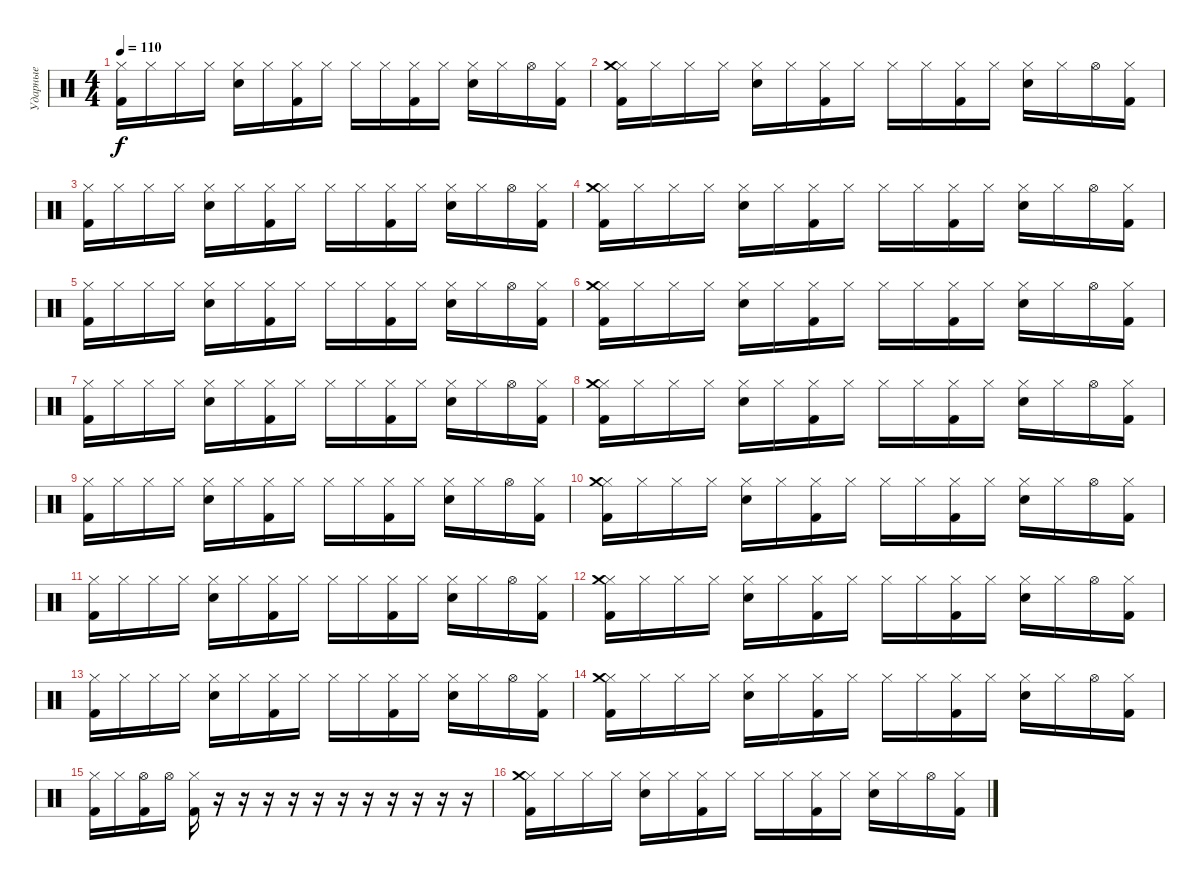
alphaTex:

\track ("Ударные" "Ударные") {instrument percussion}
\staff {score}
\articulation defaults
\ts (4 4)
\tempo 110
\clef neutral
\ks c
("Hi-Hat (closed)" "Kick (hit) 2").16{dy f} "Hi-Hat (closed)".16 "Hi-Hat (closed)".16 "Hi-Hat (closed)".16 ("Hi-Hat (closed)" "Electric Snare (hit)").16 "Hi-Hat (closed)".16 ("Hi-Hat (closed)" "Kick (hit) 2").16 "Hi-Hat (closed)".16 "Hi-Hat (closed)".16 "Hi-Hat (closed)".16 ("Hi-Hat (closed)" "Kick (hit) 2").16 "Hi-Hat (closed)".16 ("Hi-Hat (closed)" "Electric Snare (hit)").16 "Hi-Hat (closed)".16 "Hi-Hat (open)".16 ("Hi-Hat (closed)" "Kick (hit) 2").16 |
("Hi-Hat (closed)" "Kick (hit) 2" "Crash medium (hit)").16 "Hi-Hat (closed)".16 "Hi-Hat (closed)".16 "Hi-Hat (closed)".16 ("Hi-Hat (closed)" "Electric Snare (hit)").16 "Hi-Hat (closed)".16 ("Hi-Hat (closed)" "Kick (hit) 2").16 "Hi-Hat (closed)".16 "Hi-Hat (closed)".16 "Hi-Hat (closed)".16 ("Hi-Hat (closed)" "Kick (hit) 2").16 "Hi-Hat (closed)".16 ("Hi-Hat (closed)" "Electric Snare (hit)").16 "Hi-Hat (closed)".16 "Hi-Hat (open)".16 ("Hi-Hat (closed)" "Kick (hit) 2").16 |
("Hi-Hat (closed)" "Kick (hit) 2").16 "Hi-Hat (closed)".16 "Hi-Hat (closed)".16 "Hi-Hat (closed)".16 ("Hi-Hat (closed)" "Electric Snare (hit)").16 "Hi-Hat (closed)".16 ("Hi-Hat (closed)" "Kick (hit) 2").16 "Hi-Hat (closed)".16 "Hi-Hat (closed)".16 "Hi-Hat (closed)".16 ("Hi-Hat (closed)" "Kick (hit) 2").16 "Hi-Hat (closed)".16 ("Hi-Hat (closed)" "Electric Snare (hit)").16 "Hi-Hat (closed)".16 "Hi-Hat (open)".16 ("Hi-Hat (closed)" "Kick (hit) 2").16 |
("Hi-Hat (closed)" "Kick (hit) 2" "Crash medium (hit)").16 "Hi-Hat (closed)".16 "Hi-Hat (closed)".16 "Hi-Hat (closed)".16 ("Hi-Hat (closed)" "Electric Snare (hit)").16 "Hi-Hat (closed)".16 ("Hi-Hat (closed)" "Kick (hit) 2").16 "Hi-Hat (closed)".16 "Hi-Hat (closed)".16 "Hi-Hat (closed)".16 ("Hi-Hat (closed)" "Kick (hit) 2").16 "Hi-Hat (closed)".16 ("Hi-Hat (closed)" "Electric Snare (hit)").16 "Hi-Hat (closed)".16 "Hi-Hat (open)".16 ("Hi-Hat (closed)" "Kick (hit) 2").16 |
("Hi-Hat (closed)" "Kick (hit) 2").16 "Hi-Hat (closed)".16 "Hi-Hat (closed)".16 "Hi-Hat (closed)".16 ("Hi-Hat (closed)" "Electric Snare (hit)").16 "Hi-Hat (closed)".16 ("Hi-Hat (closed)" "Kick (hit) 2").16 "Hi-Hat (closed)".16 "Hi-Hat (closed)".16 "Hi-Hat (closed)".16 ("Hi-Hat (closed)" "Kick (hit) 2").16 "Hi-Hat (closed)".16 ("Hi-Hat (closed)" "Electric Snare (hit)").16 "Hi-Hat (closed)".16 "Hi-Hat (open)".16 ("Hi-Hat (closed)" "Kick (hit) 2").16 |
("Hi-Hat (closed)" "Kick (hit) 2" "Crash medium (hit)").16 "Hi-Hat (closed)".16 "Hi-Hat (closed)".16 "Hi-Hat (closed)".16 ("Hi-Hat (closed)" "Electric Snare (hit)").16 "Hi-Hat (closed)".16 ("Hi-Hat (closed)" "Kick (hit) 2").16 "Hi-Hat (closed)".16 "Hi-Hat (closed)".16 "Hi-Hat (closed)".16 ("Hi-Hat (closed)" "Kick (hit) 2").16 "Hi-Hat (closed)".16 ("Hi-Hat (closed)" "Electric Snare (hit)").16 "Hi-Hat (closed)".16 "Hi-Hat (open)".16 ("Hi-Hat (closed)" "Kick (hit) 2").16 |
("Hi-Hat (closed)" "Kick (hit) 2").16 "Hi-Hat (closed)".16 "Hi-Hat (closed)".16 "Hi-Hat (closed)".16 ("Hi-Hat (closed)" "Electric Snare (hit)").16 "Hi-Hat (closed)".16 ("Hi-Hat (closed)" "Kick (hit) 2").16 "Hi-Hat (closed)".16 "Hi-Hat (closed)".16 "Hi-Hat (closed)".16 ("Hi-Hat (closed)" "Kick (hit) 2").16 "Hi-Hat (closed)".16 ("Hi-Hat (closed)" "Electric Snare (hit)").16 "Hi-Hat (closed)".16 "Hi-Hat (open)".16 ("Hi-Hat (closed)" "Kick (hit) 2").16 |
("Hi-Hat (closed)" "Kick (hit) 2" "Crash medium (hit)").16 "Hi-Hat (closed)".16 "Hi-Hat (closed)".16 "Hi-Hat (closed)".16 ("Hi-Hat (closed)" "Electric Snare (hit)").16 "Hi-Hat (closed)".16 ("Hi-Hat (closed)" "Kick (hit) 2").16 "Hi-Hat (closed)".16 "Hi-Hat (closed)".16 "Hi-Hat (closed)".16 ("Hi-Hat (closed)" "Kick (hit) 2").16 "Hi-Hat (closed)".16 ("Hi-Hat (closed)" "Electric Snare (hit)").16 "Hi-Hat (closed)".16 "Hi-Hat (open)".16 ("Hi-Hat (closed)" "Kick (hit) 2").16 |
("Hi-Hat (closed)" "Kick (hit) 2").16 "Hi-Hat (closed)".16 "Hi-Hat (closed)".16 "Hi-Hat (closed)".16 ("Hi-Hat (closed)" "Electric Snare (hit)").16 "Hi-Hat (closed)".16 ("Hi-Hat (closed)" "Kick (hit) 2").16 "Hi-Hat (closed)".16 "Hi-Hat (closed)".16 "Hi-Hat (closed)".16 ("Hi-Hat (closed)" "Kick (hit) 2").16 "Hi-Hat (closed)".16 ("Hi-Hat (closed)" "Electric Snare (hit)").16 "Hi-Hat (closed)".16 "Hi-Hat (open)".16 ("Hi-Hat (closed)" "Kick (hit) 2").16 |
("Hi-Hat (closed)" "Kick (hit) 2" "Crash medium (hit)").16 "Hi-Hat (closed)".16 "Hi-Hat (closed)".16 "Hi-Hat (closed)".16 ("Hi-Hat (closed)" "Electric Snare (hit)").16 "Hi-Hat (closed)".16 ("Hi-Hat (closed)" "Kick (hit) 2").16 "Hi-Hat (closed)".16 "Hi-Hat (closed)".16 "Hi-Hat (closed)".16 ("Hi-Hat (closed)" "Kick (hit) 2").16 "Hi-Hat (closed)".16 ("Hi-Hat (closed)" "Electric Snare (hit)").16 "Hi-Hat (closed)".16 "Hi-Hat (open)".16 ("Hi-Hat (closed)" "Kick (hit) 2").16 |
("Hi-Hat (closed)" "Kick (hit) 2").16 "Hi-Hat (closed)".16 "Hi-Hat (closed)".16 "Hi-Hat (closed)".16 ("Hi-Hat (closed)" "Electric Snare (hit)").16 "Hi-Hat (closed)".16 ("Hi-Hat (closed)" "Kick (hit) 2").16 "Hi-Hat (closed)".16 "Hi-Hat (closed)".16 "Hi-Hat (closed)".16 ("Hi-Hat (closed)" "Kick (hit) 2").16 "Hi-Hat (closed)".16 ("Hi-Hat (closed)" "Electric Snare (hit)").16 "Hi-Hat (closed)".16 "Hi-Hat (open)".16 ("Hi-Hat (closed)" "Kick (hit) 2").16 |
("Hi-Hat (closed)" "Kick (hit) 2" "Crash medium (hit)").16 "Hi-Hat (closed)".16 "Hi-Hat (closed)".16 "Hi-Hat (closed)".16 ("Hi-Hat (closed)" "Electric Snare (hit)").16 "Hi-Hat (closed)".16 ("Hi-Hat (closed)" "Kick (hit) 2").16 "Hi-Hat (closed)".16 "Hi-Hat (closed)".16 "Hi-Hat (closed)".16 ("Hi-Hat (closed)" "Kick (hit) 2").16 "Hi-Hat (closed)".16 ("Hi-Hat (closed)" "Electric Snare (hit)").16 "Hi-Hat (closed)".16 "Hi-Hat (open)".16 ("Hi-Hat (closed)" "Kick (hit) 2").16 |
("Hi-Hat (closed)" "Kick (hit) 2").16 "Hi-Hat (closed)".16 "Hi-Hat (closed)".16 "Hi-Hat (closed)".16 ("Hi-Hat (closed)" "Electric Snare (hit)").16 "Hi-Hat (closed)".16 ("Hi-Hat (closed)" "Kick (hit) 2").16 "Hi-Hat (closed)".16 "Hi-Hat (closed)".16 "Hi-Hat (closed)".16 ("Hi-Hat (closed)" "Kick (hit) 2").16 "Hi-Hat (closed)".16 ("Hi-Hat (closed)" "Electric Snare (hit)").16 "Hi-Hat (closed)".16 "Hi-Hat (open)".16 ("Hi-Hat (closed)" "Kick (hit) 2").16 |
("Hi-Hat (closed)" "Kick (hit) 2" "Crash medium (hit)").16 "Hi-Hat (closed)".16 "Hi-Hat (closed)".16 "Hi-Hat (closed)".16 ("Hi-Hat (closed)" "Electric Snare (hit)").16 "Hi-Hat (closed)".16 ("Hi-Hat (closed)" "Kick (hit) 2").16 "Hi-Hat (closed)".16 "Hi-Hat (closed)".16 "Hi-Hat (closed)".16 ("Hi-Hat (closed)" "Kick (hit) 2").16 "Hi-Hat (closed)".16 ("Hi-Hat (closed)" "Electric Snare (hit)").16 "Hi-Hat (closed)".16 "Hi-Hat (open)".16 ("Hi-Hat (closed)" "Kick (hit) 2").16 |
("Hi-Hat (closed)" "Kick (hit) 2").16 "Hi-Hat (closed)".16 ("Hi-Hat (open)" "Kick (hit) 2").16 "Hi-Hat (open)".16 ("Hi-Hat (closed)" "Kick (hit) 2").16 r.16 r.16 r.16 r.16 r.16 r.16 r.16 r.16 r.16 r.16 r.16 |
("Hi-Hat (closed)" "Kick (hit) 2" "Crash medium (hit)").16 "Hi-Hat (closed)".16 "Hi-Hat (closed)".16 "Hi-Hat (closed)".16 ("Hi-Hat (closed)" "Electric Snare (hit)").16 "Hi-Hat (closed)".16 ("Hi-Hat (closed)" "Kick (hit) 2").16 "Hi-Hat (closed)".16 "Hi-Hat (closed)".16 "Hi-Hat (closed)".16 ("Hi-Hat (closed)" "Kick (hit) 2").16 "Hi-Hat (closed)".16 ("Hi-Hat (closed)" "Electric Snare (hit)").16 "Hi-Hat (closed)".16 "Hi-Hat (open)".16 ("Hi-Hat (closed)" "Kick (hit) 2").16
